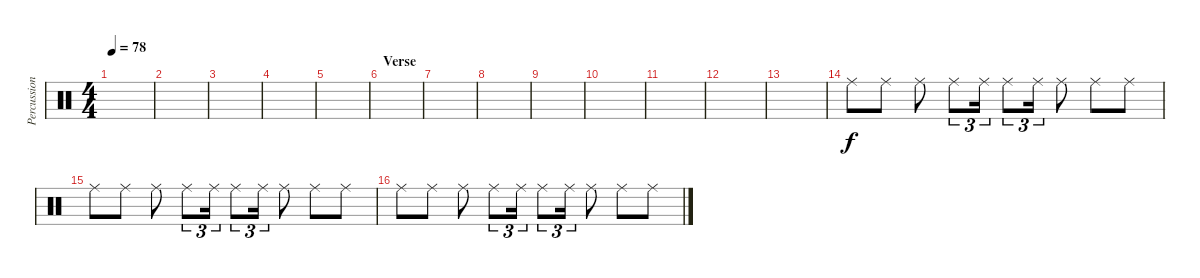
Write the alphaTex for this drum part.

\track ("Percussion" "Percussion") {instrument percussion}
\staff {score}
\articulation defaults
\ts (4 4)
\tempo 78
\clef neutral
\ks c
|
|
|
|
|
\section ("" "Verse")
|
|
|
|
|
|
|
|
"Ride (middle)".8 "Ride (middle)".8 "Ride (middle)".8 "Ride (middle)".8{tu (3 2)} "Ride (middle)".16{tu (3 2)} "Ride (middle)".8{tu (3 2)} "Ride (middle)".16{tu (3 2)} "Ride (middle)".8 "Ride (middle)".8 "Ride (middle)".8 |
"Ride (middle)".8 "Ride (middle)".8 "Ride (middle)".8 "Ride (middle)".8{tu (3 2)} "Ride (middle)".16{tu (3 2)} "Ride (middle)".8{tu (3 2)} "Ride (middle)".16{tu (3 2)} "Ride (middle)".8 "Ride (middle)".8 "Ride (middle)".8 |
"Ride (middle)".8 "Ride (middle)".8 "Ride (middle)".8 "Ride (middle)".8{tu (3 2)} "Ride (middle)".16{tu (3 2)} "Ride (middle)".8{tu (3 2)} "Ride (middle)".16{tu (3 2)} "Ride (middle)".8 "Ride (middle)".8 "Ride (middle)".8
